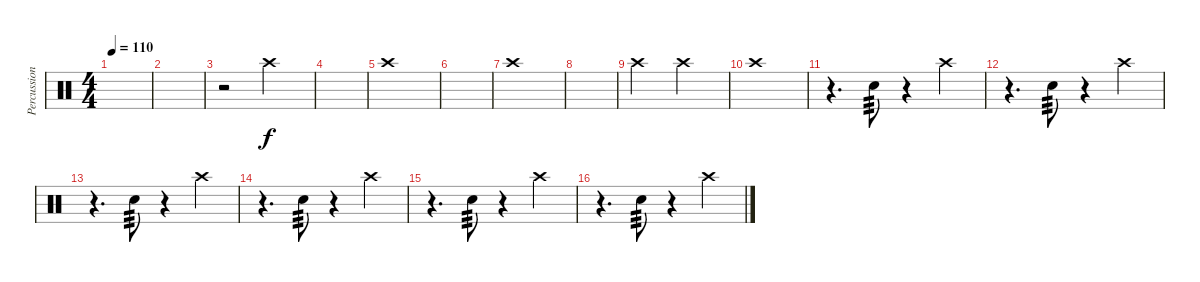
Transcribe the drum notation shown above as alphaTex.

\track ("Percussion" "Percussion") {instrument percussion}
\staff {score}
\articulation defaults
\ts (4 4)
\tempo 110
\clef neutral
\ks c
|
|
r.2 "Crash high (hit)".2 |
|
"Crash high (hit)".1 |
|
"Crash high (hit)".1 |
|
"Crash high (hit)".2 "Crash high (hit)".2 |
"Crash high (hit)".1 |
r.4{d} "Electric Snare (hit)".8{tp 3} r.4 "Crash high (hit)".4 |
r.4{d} "Electric Snare (hit)".8{tp 3} r.4 "Crash high (hit)".4 |
r.4{d} "Electric Snare (hit)".8{tp 3} r.4 "Crash high (hit)".4 |
r.4{d} "Electric Snare (hit)".8{tp 3} r.4 "Crash high (hit)".4 |
r.4{d} "Electric Snare (hit)".8{tp 3} r.4 "Crash high (hit)".4 |
r.4{d} "Electric Snare (hit)".8{tp 3} r.4 "Crash high (hit)".4
